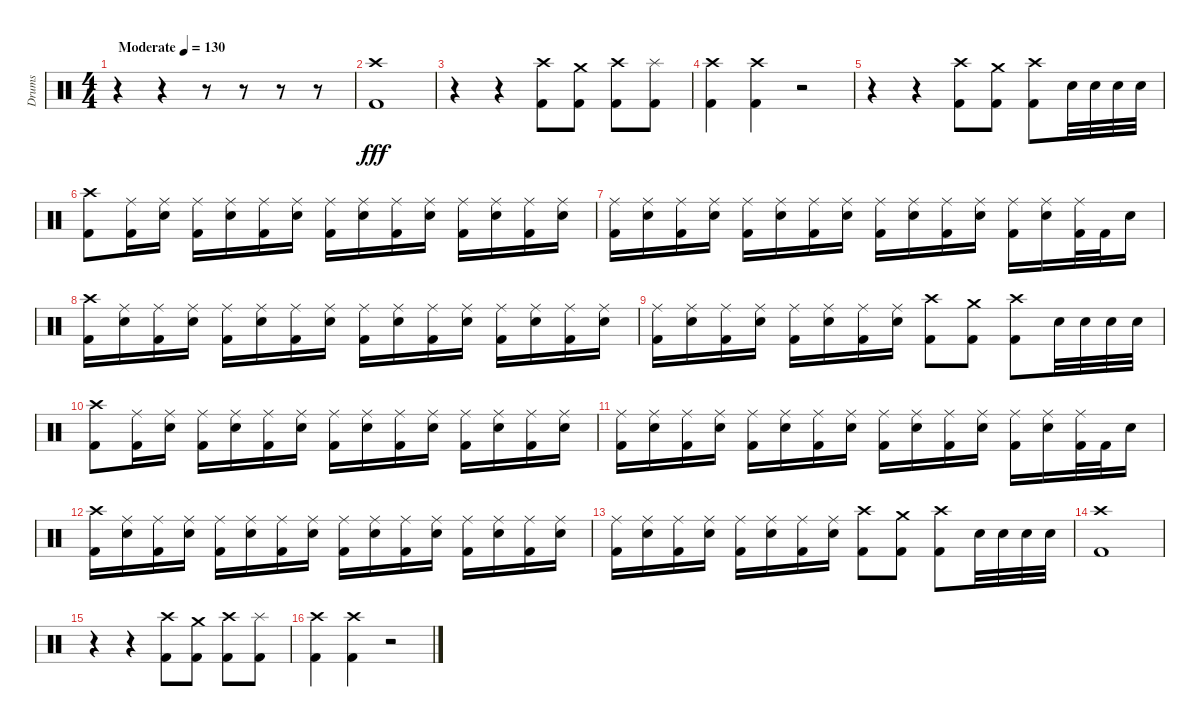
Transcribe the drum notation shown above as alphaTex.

\track ("Drums" "Drums") {instrument percussion}
\staff {score}
\articulation defaults
\ts (4 4)
\tempo (130 "Moderate")
\clef neutral
\ks c
r.4{dy fff} r.4 r.8 r.8 r.8 r.8 |
("Crash high (hit)" "Kick (hit) 2").1 |
r.4 r.4 ("Kick (hit) 2" "Crash high (hit)").8 ("Kick (hit) 2" "Crash medium (hit)").8 ("Kick (hit) 2" "Crash high (hit)").8 ("Kick (hit) 2" "Splash (hit)").8 |
("Kick (hit) 2" "Crash high (hit)").4 ("Kick (hit) 2" "Crash high (hit)").4 r.2 |
r.4 r.4 ("Kick (hit) 2" "Crash high (hit)").8 ("Kick (hit) 2" "Crash medium (hit)").8 ("Kick (hit) 2" "Crash high (hit)").8 "Snare (hit) 2".32 "Snare (hit) 2".32 "Snare (hit) 2".32 "Snare (hit) 2".32 |
("Kick (hit) 2" "Crash high (hit)").8 ("Kick (hit) 2" "Ride (middle)").16 ("Snare (hit) 2" "Ride (middle)").16 ("Kick (hit) 2" "Ride (middle)").16 ("Snare (hit) 2" "Ride (middle)").16 ("Kick (hit) 2" "Ride (middle)").16 ("Snare (hit) 2" "Ride (middle)").16 ("Kick (hit) 2" "Ride (middle)").16 ("Snare (hit) 2" "Ride (middle)").16 ("Kick (hit) 2" "Ride (middle)").16 ("Snare (hit) 2" "Ride (middle)").16 ("Kick (hit) 2" "Ride (middle)").16 ("Snare (hit) 2" "Ride (middle)").16 ("Kick (hit) 2" "Ride (middle)").16 ("Snare (hit) 2" "Ride (middle)").16 |
("Kick (hit) 2" "Ride (middle)").16 ("Snare (hit) 2" "Ride (middle)").16 ("Kick (hit) 2" "Ride (middle)").16 ("Snare (hit) 2" "Ride (middle)").16 ("Kick (hit) 2" "Ride (middle)").16 ("Snare (hit) 2" "Ride (middle)").16 ("Kick (hit) 2" "Ride (middle)").16 ("Snare (hit) 2" "Ride (middle)").16 ("Kick (hit) 2" "Ride (middle)").16 ("Snare (hit) 2" "Ride (middle)").16 ("Kick (hit) 2" "Ride (middle)").16 ("Snare (hit) 2" "Ride (middle)").16 ("Kick (hit) 2" "Ride (middle)").16 ("Snare (hit) 2" "Ride (middle)").16 ("Kick (hit) 2" "Ride (middle)").32 "Kick (hit) 2".32 "Snare (hit) 2".16 |
("Kick (hit) 2" "Crash high (hit)").16 ("Snare (hit) 2" "Ride (middle)").16 ("Kick (hit) 2" "Ride (middle)").16 ("Snare (hit) 2" "Ride (middle)").16 ("Kick (hit) 2" "Ride (middle)").16 ("Snare (hit) 2" "Ride (middle)").16 ("Kick (hit) 2" "Ride (middle)").16 ("Snare (hit) 2" "Ride (middle)").16 ("Kick (hit) 2" "Ride (middle)").16 ("Snare (hit) 2" "Ride (middle)").16 ("Kick (hit) 2" "Ride (middle)").16 ("Snare (hit) 2" "Ride (middle)").16 ("Kick (hit) 2" "Ride (middle)").16 ("Snare (hit) 2" "Ride (middle)").16 ("Kick (hit) 2" "Ride (middle)").16 ("Snare (hit) 2" "Ride (middle)").16 |
("Kick (hit) 2" "Ride (middle)").16 ("Snare (hit) 2" "Ride (middle)").16 ("Kick (hit) 2" "Ride (middle)").16 ("Snare (hit) 2" "Ride (middle)").16 ("Kick (hit) 2" "Ride (middle)").16 ("Snare (hit) 2" "Ride (middle)").16 ("Kick (hit) 2" "Ride (middle)").16 ("Snare (hit) 2" "Ride (middle)").16 ("Kick (hit) 2" "Crash high (hit)").8 ("Kick (hit) 2" "Crash medium (hit)").8 ("Kick (hit) 2" "Crash high (hit)").8 "Snare (hit) 2".32 "Snare (hit) 2".32 "Snare (hit) 2".32 "Snare (hit) 2".32 |
("Kick (hit) 2" "Crash high (hit)").8 ("Kick (hit) 2" "Ride (middle)").16 ("Snare (hit) 2" "Ride (middle)").16 ("Kick (hit) 2" "Ride (middle)").16 ("Snare (hit) 2" "Ride (middle)").16 ("Kick (hit) 2" "Ride (middle)").16 ("Snare (hit) 2" "Ride (middle)").16 ("Kick (hit) 2" "Ride (middle)").16 ("Snare (hit) 2" "Ride (middle)").16 ("Kick (hit) 2" "Ride (middle)").16 ("Snare (hit) 2" "Ride (middle)").16 ("Kick (hit) 2" "Ride (middle)").16 ("Snare (hit) 2" "Ride (middle)").16 ("Kick (hit) 2" "Ride (middle)").16 ("Snare (hit) 2" "Ride (middle)").16 |
("Kick (hit) 2" "Ride (middle)").16 ("Snare (hit) 2" "Ride (middle)").16 ("Kick (hit) 2" "Ride (middle)").16 ("Snare (hit) 2" "Ride (middle)").16 ("Kick (hit) 2" "Ride (middle)").16 ("Snare (hit) 2" "Ride (middle)").16 ("Kick (hit) 2" "Ride (middle)").16 ("Snare (hit) 2" "Ride (middle)").16 ("Kick (hit) 2" "Ride (middle)").16 ("Snare (hit) 2" "Ride (middle)").16 ("Kick (hit) 2" "Ride (middle)").16 ("Snare (hit) 2" "Ride (middle)").16 ("Kick (hit) 2" "Ride (middle)").16 ("Snare (hit) 2" "Ride (middle)").16 ("Kick (hit) 2" "Ride (middle)").32 "Kick (hit) 2".32 "Snare (hit) 2".16 |
("Kick (hit) 2" "Crash high (hit)").16 ("Snare (hit) 2" "Ride (middle)").16 ("Kick (hit) 2" "Ride (middle)").16 ("Snare (hit) 2" "Ride (middle)").16 ("Kick (hit) 2" "Ride (middle)").16 ("Snare (hit) 2" "Ride (middle)").16 ("Kick (hit) 2" "Ride (middle)").16 ("Snare (hit) 2" "Ride (middle)").16 ("Kick (hit) 2" "Ride (middle)").16 ("Snare (hit) 2" "Ride (middle)").16 ("Kick (hit) 2" "Ride (middle)").16 ("Snare (hit) 2" "Ride (middle)").16 ("Kick (hit) 2" "Ride (middle)").16 ("Snare (hit) 2" "Ride (middle)").16 ("Kick (hit) 2" "Ride (middle)").16 ("Snare (hit) 2" "Ride (middle)").16 |
("Kick (hit) 2" "Ride (middle)").16 ("Snare (hit) 2" "Ride (middle)").16 ("Kick (hit) 2" "Ride (middle)").16 ("Snare (hit) 2" "Ride (middle)").16 ("Kick (hit) 2" "Ride (middle)").16 ("Snare (hit) 2" "Ride (middle)").16 ("Kick (hit) 2" "Ride (middle)").16 ("Snare (hit) 2" "Ride (middle)").16 ("Kick (hit) 2" "Crash high (hit)").8 ("Kick (hit) 2" "Crash medium (hit)").8 ("Kick (hit) 2" "Crash high (hit)").8 "Snare (hit) 2".32 "Snare (hit) 2".32 "Snare (hit) 2".32 "Snare (hit) 2".32 |
("Crash high (hit)" "Kick (hit) 2").1 |
r.4 r.4 ("Kick (hit) 2" "Crash high (hit)").8 ("Kick (hit) 2" "Crash medium (hit)").8 ("Kick (hit) 2" "Crash high (hit)").8 ("Kick (hit) 2" "Splash (hit)").8 |
("Kick (hit) 2" "Crash high (hit)").4 ("Kick (hit) 2" "Crash high (hit)").4 r.2
